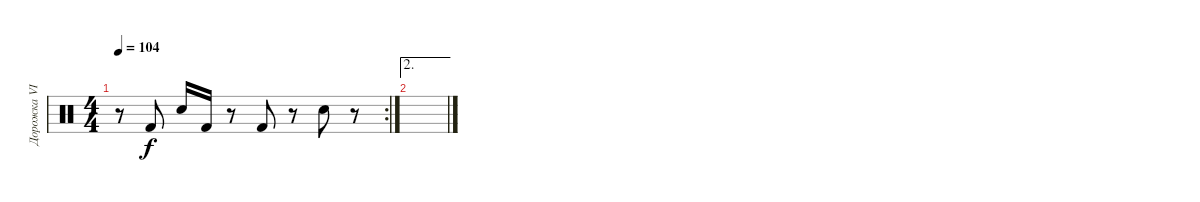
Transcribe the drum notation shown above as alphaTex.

\track ("Дорожка VII" "Дорожка VI") {instrument percussion}
\staff {score}
\articulation defaults
\rc 2
\ts (4 4)
\tempo 104
\clef neutral
\ks c
r.8{dy f} "Kick (hit) 2".8 "Electric Snare (hit)".16 "Kick (hit) 2".16 r.8 "Kick (hit) 2".8 r.8 "Electric Snare (hit)".8 r.8 |
\ae 2
